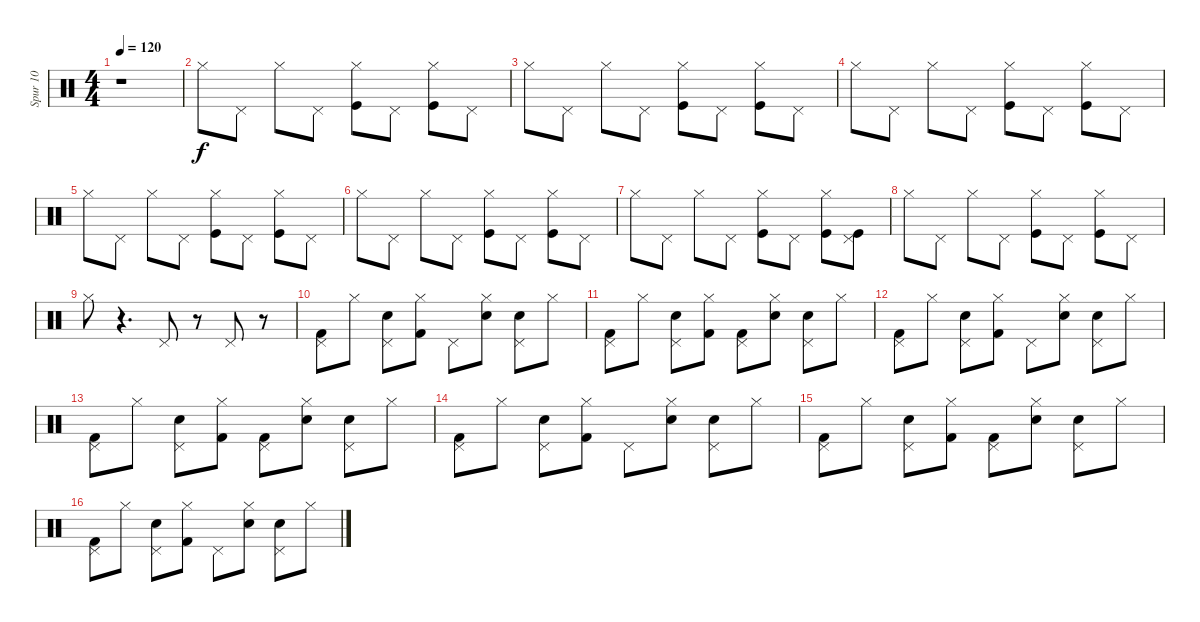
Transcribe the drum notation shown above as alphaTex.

\track ("Spur 10" "Spur 10") {instrument percussion}
\staff {score}
\articulation defaults
\ts (4 4)
\tempo 120
\clef neutral
\ks c
r.1{dy f} |
"Hi-Hat (closed)".8 "Pedal Hi-Hat (hit)".8 "Hi-Hat (closed)".8 "Pedal Hi-Hat (hit)".8 ("Kick (hit)" "Hi-Hat (closed)").8 "Pedal Hi-Hat (hit)".8 ("Kick (hit)" "Hi-Hat (closed)").8 "Pedal Hi-Hat (hit)".8 |
"Hi-Hat (closed)".8 "Pedal Hi-Hat (hit)".8 "Hi-Hat (closed)".8 "Pedal Hi-Hat (hit)".8 ("Kick (hit)" "Hi-Hat (closed)").8 "Pedal Hi-Hat (hit)".8 ("Kick (hit)" "Hi-Hat (closed)").8 "Pedal Hi-Hat (hit)".8 |
"Hi-Hat (closed)".8 "Pedal Hi-Hat (hit)".8 "Hi-Hat (closed)".8 "Pedal Hi-Hat (hit)".8 ("Kick (hit)" "Hi-Hat (closed)").8 "Pedal Hi-Hat (hit)".8 ("Kick (hit)" "Hi-Hat (closed)").8 "Pedal Hi-Hat (hit)".8 |
"Hi-Hat (closed)".8 "Pedal Hi-Hat (hit)".8 "Hi-Hat (closed)".8 "Pedal Hi-Hat (hit)".8 ("Kick (hit)" "Hi-Hat (closed)").8 "Pedal Hi-Hat (hit)".8 ("Kick (hit)" "Hi-Hat (closed)").8 "Pedal Hi-Hat (hit)".8 |
"Hi-Hat (closed)".8 "Pedal Hi-Hat (hit)".8 "Hi-Hat (closed)".8 "Pedal Hi-Hat (hit)".8 ("Kick (hit)" "Hi-Hat (closed)").8 "Pedal Hi-Hat (hit)".8 ("Kick (hit)" "Hi-Hat (closed)").8 "Pedal Hi-Hat (hit)".8 |
"Hi-Hat (closed)".8 "Pedal Hi-Hat (hit)".8 "Hi-Hat (closed)".8 "Pedal Hi-Hat (hit)".8 ("Kick (hit)" "Hi-Hat (closed)").8 "Pedal Hi-Hat (hit)".8 ("Kick (hit)" "Hi-Hat (closed)").8 ("Kick (hit)" "Pedal Hi-Hat (hit)").8 |
"Hi-Hat (closed)".8 "Pedal Hi-Hat (hit)".8 "Hi-Hat (closed)".8 "Pedal Hi-Hat (hit)".8 ("Kick (hit)" "Hi-Hat (closed)").8 "Pedal Hi-Hat (hit)".8 ("Kick (hit)" "Hi-Hat (closed)").8 "Pedal Hi-Hat (hit)".8 |
"Hi-Hat (closed)".8 r.4{d} "Pedal Hi-Hat (hit)".8 r.8 "Pedal Hi-Hat (hit)".8 r.8 |
("Pedal Hi-Hat (hit)" "Kick (hit) 2").8 "Hi-Hat (closed)".8 ("Pedal Hi-Hat (hit)" "Snare (hit) 2").8 ("Hi-Hat (closed)" "Kick (hit) 2").8 "Pedal Hi-Hat (hit)".8 ("Hi-Hat (closed)" "Snare (hit) 2").8 ("Pedal Hi-Hat (hit)" "Snare (hit) 2").8 "Hi-Hat (closed)".8 |
("Pedal Hi-Hat (hit)" "Kick (hit) 2").8 "Hi-Hat (closed)".8 ("Pedal Hi-Hat (hit)" "Snare (hit) 2").8 ("Hi-Hat (closed)" "Kick (hit) 2").8 ("Pedal Hi-Hat (hit)" "Kick (hit) 2").8 ("Hi-Hat (closed)" "Snare (hit) 2").8 ("Pedal Hi-Hat (hit)" "Snare (hit) 2").8 "Hi-Hat (closed)".8 |
("Pedal Hi-Hat (hit)" "Kick (hit) 2").8 "Hi-Hat (closed)".8 ("Pedal Hi-Hat (hit)" "Snare (hit) 2").8 ("Hi-Hat (closed)" "Kick (hit) 2").8 "Pedal Hi-Hat (hit)".8 ("Hi-Hat (closed)" "Snare (hit) 2").8 ("Pedal Hi-Hat (hit)" "Snare (hit) 2").8 "Hi-Hat (closed)".8 |
("Pedal Hi-Hat (hit)" "Kick (hit) 2").8 "Hi-Hat (closed)".8 ("Pedal Hi-Hat (hit)" "Snare (hit) 2").8 ("Hi-Hat (closed)" "Kick (hit) 2").8 ("Pedal Hi-Hat (hit)" "Kick (hit) 2").8 ("Hi-Hat (closed)" "Snare (hit) 2").8 ("Pedal Hi-Hat (hit)" "Snare (hit) 2").8 "Hi-Hat (closed)".8 |
("Pedal Hi-Hat (hit)" "Kick (hit) 2").8 "Hi-Hat (closed)".8 ("Pedal Hi-Hat (hit)" "Snare (hit) 2").8 ("Hi-Hat (closed)" "Kick (hit) 2").8 "Pedal Hi-Hat (hit)".8 ("Hi-Hat (closed)" "Snare (hit) 2").8 ("Pedal Hi-Hat (hit)" "Snare (hit) 2").8 "Hi-Hat (closed)".8 |
("Pedal Hi-Hat (hit)" "Kick (hit) 2").8 "Hi-Hat (closed)".8 ("Pedal Hi-Hat (hit)" "Snare (hit) 2").8 ("Hi-Hat (closed)" "Kick (hit) 2").8 ("Pedal Hi-Hat (hit)" "Kick (hit) 2").8 ("Hi-Hat (closed)" "Snare (hit) 2").8 ("Pedal Hi-Hat (hit)" "Snare (hit) 2").8 "Hi-Hat (closed)".8 |
("Pedal Hi-Hat (hit)" "Kick (hit) 2").8 "Hi-Hat (closed)".8 ("Pedal Hi-Hat (hit)" "Snare (hit) 2").8 ("Hi-Hat (closed)" "Kick (hit) 2").8 "Pedal Hi-Hat (hit)".8 ("Hi-Hat (closed)" "Snare (hit) 2").8 ("Pedal Hi-Hat (hit)" "Snare (hit) 2").8 "Hi-Hat (closed)".8
